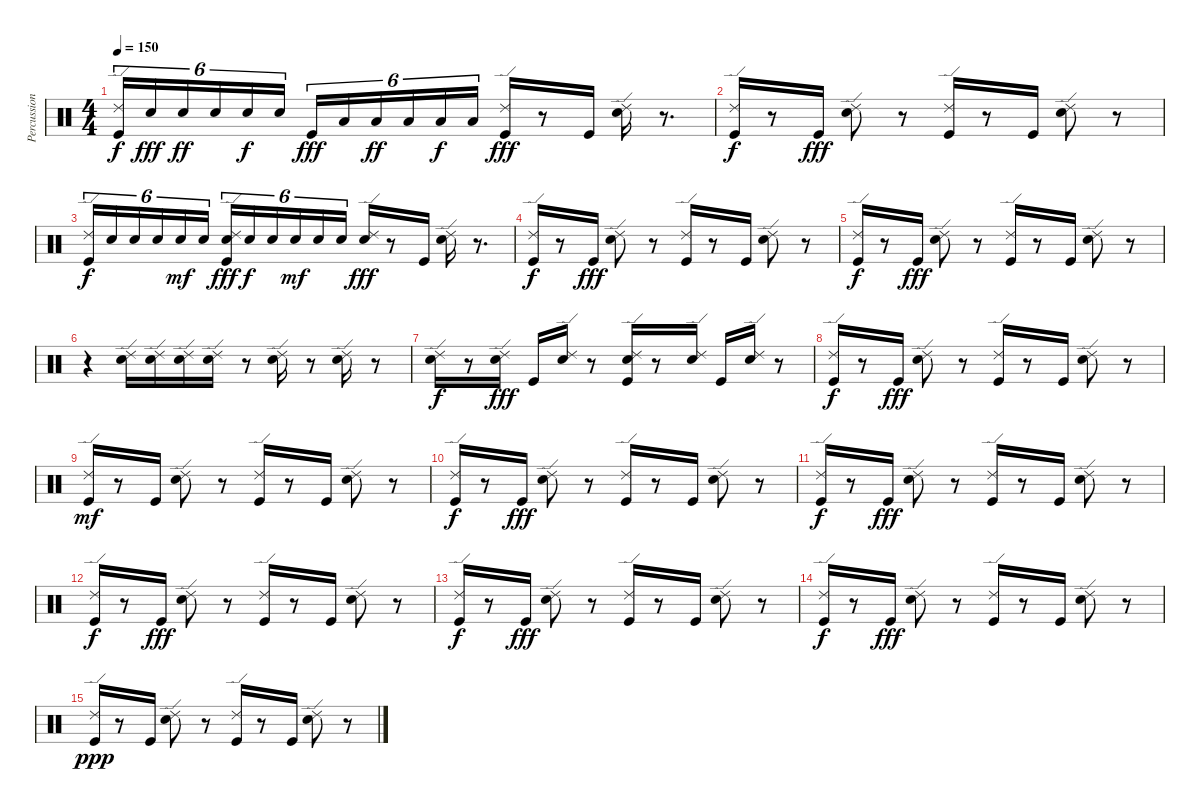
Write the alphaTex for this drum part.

\track ("Percussion" "Percussion") {instrument percussion}
\staff {score}
\articulation defaults
\ts (4 4)
\tempo 150
\clef neutral
\ks c
("Kick (hit)" "Ride (edge) 2").16{tu (6 4) dy f} "Electric Snare (hit)".16{tu (6 4) dy fff} "Electric Snare (hit)".16{tu (6 4) dy ff} "Electric Snare (hit)".16{tu (6 4)} "Electric Snare (hit)".16{tu (6 4) dy f} "Electric Snare (hit)".16{tu (6 4)} "Kick (hit)".16{tu (6 4) dy fff} "Low Tom (hit)".16{tu (6 4)} "Low Tom (hit)".16{tu (6 4) dy ff} "Low Tom (hit)".16{tu (6 4)} "Low Tom (hit)".16{tu (6 4) dy f} "Low Tom (hit)".16{tu (6 4)} ("Ride (edge) 2" "Kick (hit)").16{dy fff} r.8 "Kick (hit)".16 ("Electric Snare (hit)" "Ride (edge) 2").16 r.8{d} |
("Kick (hit)" "Ride (edge) 2").16{dy f} r.8 "Kick (hit)".16{dy fff} ("Electric Snare (hit)" "Ride (edge) 2").8 r.8 ("Kick (hit)" "Ride (edge) 2").16 r.8 "Kick (hit)".16 ("Electric Snare (hit)" "Ride (edge) 2").8 r.8 |
("Kick (hit)" "Ride (edge) 2").16{tu (6 4) dy f} "Electric Snare (hit)".16{tu (6 4)} "Electric Snare (hit)".16{tu (6 4)} "Electric Snare (hit)".16{tu (6 4)} "Electric Snare (hit)".16{tu (6 4) dy mf} "Electric Snare (hit)".16{tu (6 4)} ("Electric Snare (hit)" "Kick (hit)" "Ride (edge) 2").16{tu (6 4) dy fff} "Electric Snare (hit)".16{tu (6 4) dy f} "Electric Snare (hit)".16{tu (6 4)} "Electric Snare (hit)".16{tu (6 4) dy mf} "Electric Snare (hit)".16{tu (6 4)} "Electric Snare (hit)".16{tu (6 4)} ("Hand Clap (hit)" "Ride (edge) 2").16{dy fff} r.8 "Kick (hit)".16 ("Electric Snare (hit)" "Ride (edge) 2").16 r.8{d} |
("Kick (hit)" "Ride (edge) 2").16{dy f} r.8 "Kick (hit)".16{dy fff} ("Electric Snare (hit)" "Ride (edge) 2").8 r.8 ("Kick (hit)" "Ride (edge) 2").16 r.8 "Kick (hit)".16 ("Electric Snare (hit)" "Ride (edge) 2").8 r.8 |
("Kick (hit)" "Ride (edge) 2").16{dy f} r.8 "Kick (hit)".16{dy fff} ("Electric Snare (hit)" "Ride (edge) 2").8 r.8 ("Kick (hit)" "Ride (edge) 2").16 r.8 "Kick (hit)".16 ("Electric Snare (hit)" "Ride (edge) 2").8 r.8 |
r.4 ("Electric Snare (hit)" "Ride (edge) 2").16 ("Electric Snare (hit)" "Ride (edge) 2").16 ("Electric Snare (hit)" "Ride (edge) 2").16 ("Electric Snare (hit)" "Ride (edge) 2").16 r.8 ("Electric Snare (hit)" "Ride (edge) 2").16 r.8 ("Electric Snare (hit)" "Ride (edge) 2").16 r.8 |
("Electric Snare (hit)" "Ride (edge) 2").16{dy f} r.8 ("Electric Snare (hit)" "Ride (edge) 2").16{dy fff} "Kick (hit)".16 ("Electric Snare (hit)" "Ride (edge) 2").16 r.8 ("Kick (hit)" "Electric Snare (hit)" "Ride (edge) 2").16 r.8 ("Electric Snare (hit)" "Ride (edge) 2").16 "Kick (hit)".16 ("Electric Snare (hit)" "Ride (edge) 2").16 r.8 |
("Kick (hit)" "Ride (edge) 2").16{dy f} r.8 "Kick (hit)".16{dy fff} ("Electric Snare (hit)" "Ride (edge) 2").8 r.8 ("Kick (hit)" "Ride (edge) 2").16 r.8 "Kick (hit)".16 ("Electric Snare (hit)" "Ride (edge) 2").8 r.8 |
("Kick (hit)" "Ride (edge) 2").16{dy mf} r.8 "Kick (hit)".16 ("Electric Snare (hit)" "Ride (edge) 2").8 r.8 ("Kick (hit)" "Ride (edge) 2").16 r.8 "Kick (hit)".16 ("Electric Snare (hit)" "Ride (edge) 2").8 r.8 |
("Kick (hit)" "Ride (edge) 2").16{dy f} r.8 "Kick (hit)".16{dy fff} ("Electric Snare (hit)" "Ride (edge) 2").8 r.8 ("Kick (hit)" "Ride (edge) 2").16 r.8 "Kick (hit)".16 ("Electric Snare (hit)" "Ride (edge) 2").8 r.8 |
("Kick (hit)" "Ride (edge) 2").16{dy f} r.8 "Kick (hit)".16{dy fff} ("Electric Snare (hit)" "Ride (edge) 2").8 r.8 ("Kick (hit)" "Ride (edge) 2").16 r.8 "Kick (hit)".16 ("Electric Snare (hit)" "Ride (edge) 2").8 r.8 |
("Kick (hit)" "Ride (edge) 2").16{dy f} r.8 "Kick (hit)".16{dy fff} ("Electric Snare (hit)" "Ride (edge) 2").8 r.8 ("Kick (hit)" "Ride (edge) 2").16 r.8 "Kick (hit)".16 ("Electric Snare (hit)" "Ride (edge) 2").8 r.8 |
("Kick (hit)" "Ride (edge) 2").16{dy f} r.8 "Kick (hit)".16{dy fff} ("Electric Snare (hit)" "Ride (edge) 2").8 r.8 ("Kick (hit)" "Ride (edge) 2").16 r.8 "Kick (hit)".16 ("Electric Snare (hit)" "Ride (edge) 2").8 r.8 |
("Kick (hit)" "Ride (edge) 2").16{dy f} r.8 "Kick (hit)".16{dy fff} ("Electric Snare (hit)" "Ride (edge) 2").8 r.8 ("Kick (hit)" "Ride (edge) 2").16 r.8 "Kick (hit)".16 ("Electric Snare (hit)" "Ride (edge) 2").8 r.8 |
("Kick (hit)" "Ride (edge) 2").16{dy ppp} r.8 "Kick (hit)".16 ("Electric Snare (hit)" "Ride (edge) 2").8 r.8 ("Kick (hit)" "Ride (edge) 2").16 r.8 "Kick (hit)".16 ("Electric Snare (hit)" "Ride (edge) 2").8 r.8
